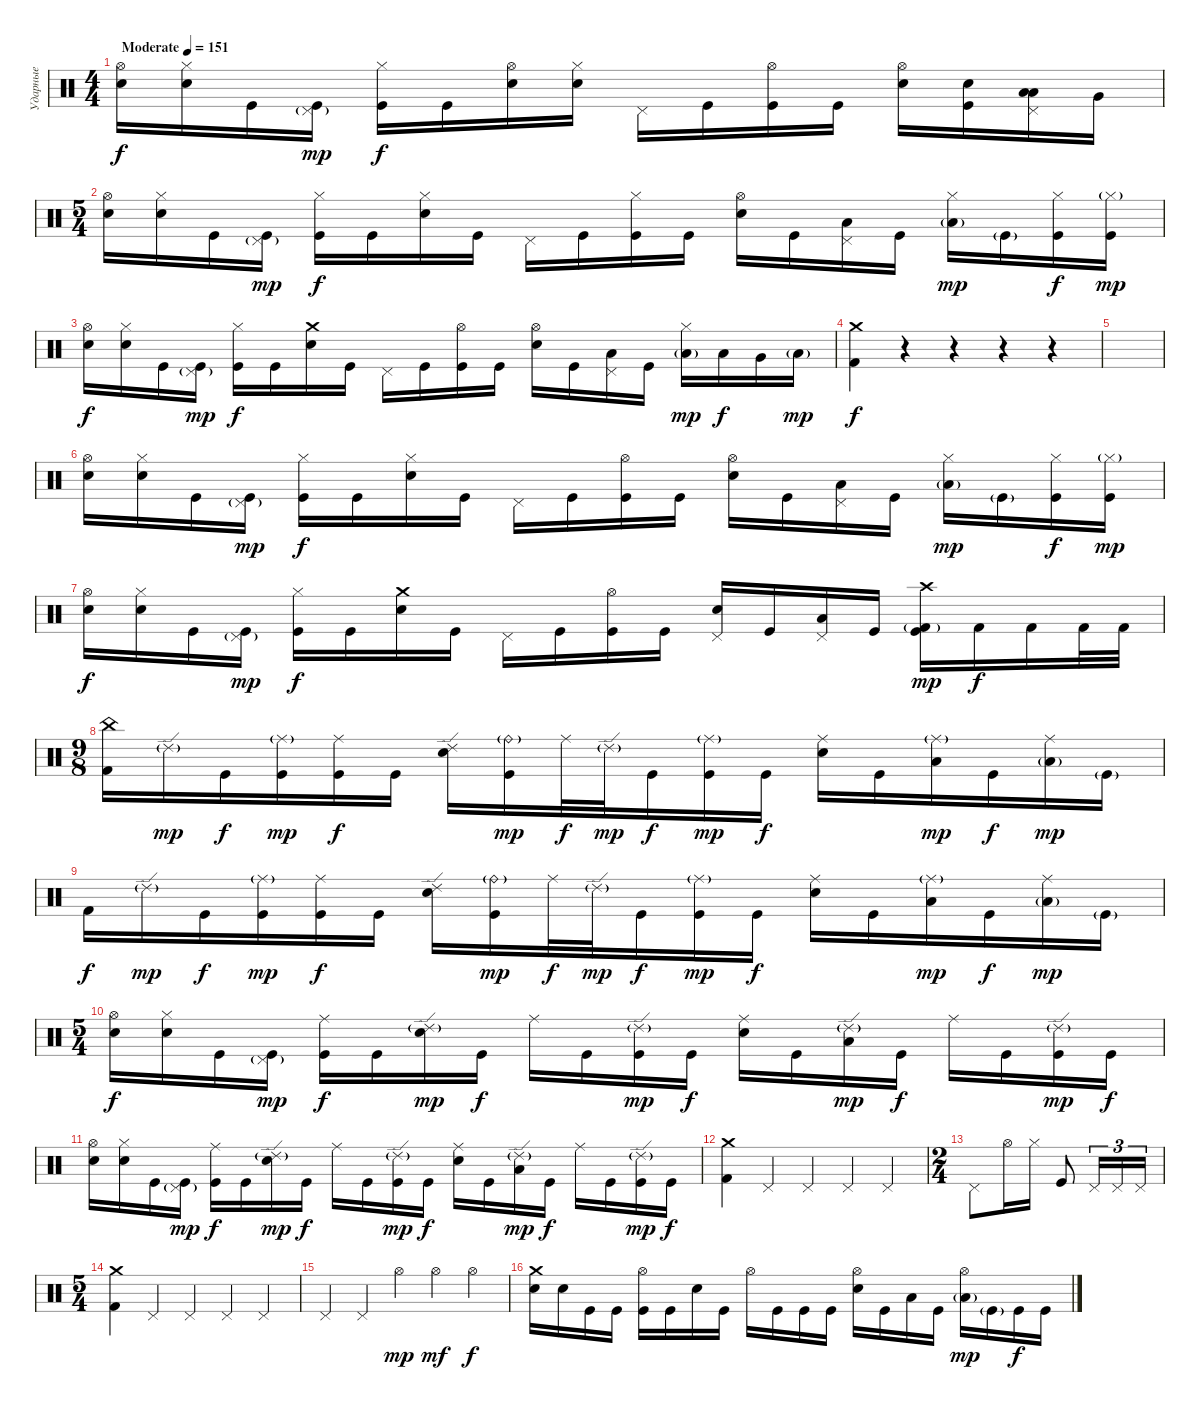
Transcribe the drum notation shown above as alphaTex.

\track ("Ударные" "Ударные") {instrument percussion}
\staff {score}
\articulation defaults
\ts (4 4)
\tempo (151 "Moderate")
\clef neutral
\ks c
("Hi-Hat (open)" "Snare (hit) 2").16{dy f} ("Hi-Hat (closed)" "Snare (hit) 2").16 "Kick (hit)".16 ("Pedal Hi-Hat (hit)"{g} "Kick (hit)").16{dy mp} ("Hi-Hat (closed)" "Kick (hit)").16{dy f} "Kick (hit)".16 ("Hi-Hat (open)" "Snare (hit) 2").16 ("Hi-Hat (closed)" "Snare (hit) 2").16 "Pedal Hi-Hat (hit)".16 "Kick (hit)".16 ("Hi-Hat (open)" "Kick (hit)").16 "Kick (hit)".16 ("Hi-Hat (open)" "Snare (hit) 2").16 ("Snare (hit) 2" "Kick (hit)").16 ("Pedal Hi-Hat (hit)" "Low Floor Tom (hit)" "Low Tom (hit)").16 "Very Low Tom (hit)".16 |
\ts (5 4)
("Hi-Hat (open)" "Snare (hit) 2").16 ("Hi-Hat (closed)" "Snare (hit) 2").16 "Kick (hit)".16 ("Pedal Hi-Hat (hit)"{g} "Kick (hit)").16{dy mp} ("Hi-Hat (closed)" "Kick (hit)").16{dy f} "Kick (hit)".16 ("Hi-Hat (closed)" "Snare (hit) 2").16 "Kick (hit)".16 "Pedal Hi-Hat (hit)".16 "Kick (hit)".16 ("Hi-Hat (closed)" "Kick (hit)").16 "Kick (hit)".16 ("Hi-Hat (open)" "Snare (hit) 2").16 "Kick (hit)".16 ("Pedal Hi-Hat (hit)" "Low Floor Tom (hit)").16 "Kick (hit)".16 ("Hi-Hat (closed)" "Low Floor Tom (hit)"{g}).16{dy mp} "Kick (hit)"{g}.16 ("Hi-Hat (closed)" "Kick (hit)").16{dy f} ("Hi-Hat (closed)"{g} "Kick (hit)").16{dy mp} |
("Hi-Hat (open)" "Snare (hit) 2").16{dy f} ("Hi-Hat (closed)" "Snare (hit) 2").16 "Kick (hit)".16 ("Pedal Hi-Hat (hit)"{g} "Kick (hit)").16{dy mp} ("Hi-Hat (closed)" "Kick (hit)").16{dy f} "Kick (hit)".16 ("Crash medium (hit)" "Snare (hit) 2").16 "Kick (hit)".16 "Pedal Hi-Hat (hit)".16 "Kick (hit)".16 ("Hi-Hat (open)" "Kick (hit)").16 "Kick (hit)".16 ("Hi-Hat (open)" "Snare (hit) 2").16 "Kick (hit)".16 ("Pedal Hi-Hat (hit)" "Low Floor Tom (hit)").16 "Kick (hit)".16 ("Hi-Hat (closed)" "Low Floor Tom (hit)"{g}).16{dy mp} "Low Tom (hit)".16{dy f} "Very Low Tom (hit)".16 "Low Floor Tom (hit)"{g}.16{dy mp} |
("Crash medium (hit)" "Kick (hit) 2").4{dy f} r.4 r.4 r.4 r.4 |
|
("Hi-Hat (open)" "Snare (hit) 2").16 ("Hi-Hat (closed)" "Snare (hit) 2").16 "Kick (hit)".16 ("Pedal Hi-Hat (hit)"{g} "Kick (hit)").16{dy mp} ("Hi-Hat (closed)" "Kick (hit)").16{dy f} "Kick (hit)".16 ("Hi-Hat (closed)" "Snare (hit) 2").16 "Kick (hit)".16 "Pedal Hi-Hat (hit)".16 "Kick (hit)".16 ("Hi-Hat (open)" "Kick (hit)").16 "Kick (hit)".16 ("Hi-Hat (open)" "Snare (hit) 2").16 "Kick (hit)".16 ("Pedal Hi-Hat (hit)" "Low Floor Tom (hit)").16 "Kick (hit)".16 ("Hi-Hat (closed)" "Low Floor Tom (hit)"{g}).16{dy mp} "Kick (hit)"{g}.16 ("Hi-Hat (closed)" "Kick (hit)").16{dy f} ("Hi-Hat (closed)"{g} "Kick (hit)").16{dy mp} |
("Hi-Hat (open)" "Snare (hit) 2").16{dy f} ("Hi-Hat (closed)" "Snare (hit) 2").16 "Kick (hit)".16 ("Pedal Hi-Hat (hit)"{g} "Kick (hit)").16{dy mp} ("Hi-Hat (closed)" "Kick (hit)").16{dy f} "Kick (hit)".16 ("Crash medium (hit)" "Snare (hit) 2").16 "Kick (hit)".16 "Pedal Hi-Hat (hit)".16 "Kick (hit)".16 ("Hi-Hat (open)" "Kick (hit)").16 "Kick (hit)".16 ("Pedal Hi-Hat (hit)" "Snare (hit) 2").16 "Kick (hit)".16 ("Pedal Hi-Hat (hit)" "Low Floor Tom (hit)").16 "Kick (hit)".16 ("Crash high (hit)" "Kick (hit) 2"{g} "Kick (hit)").16{dy mp} "Kick (hit) 2".16{dy f} "Kick (hit) 2".16 "Kick (hit) 2".32 "Kick (hit) 2".32 |
\ts (9 8)
("China (hit)" "Kick (hit) 2").16 "Ride (edge) 2"{g}.16{dy mp} "Kick (hit)".16{dy f} ("Ride (middle)"{g} "Kick (hit)").16{dy mp} ("Ride (middle)" "Kick (hit)").16{dy f} "Kick (hit)".16 ("Ride (edge) 2" "Snare (hit) 2").16 ("Ride (bell)"{g} "Kick (hit)").16{dy mp} "Ride (middle)".32{dy f} "Ride (edge) 2"{g}.32{dy mp} "Kick (hit)".16{dy f} ("Ride (middle)"{g} "Kick (hit)").16{dy mp} "Kick (hit)".16{dy f} ("Ride (middle)" "Snare (hit) 2").16 "Kick (hit)".16 ("Ride (middle)"{g} "Low Floor Tom (hit)").16{dy mp} "Kick (hit)".16{dy f} ("Ride (middle)" "Low Floor Tom (hit)"{g}).16{dy mp} "Kick (hit)"{g}.16 |
"Kick (hit) 2".16{dy f} "Ride (edge) 2"{g}.16{dy mp} "Kick (hit)".16{dy f} ("Ride (middle)"{g} "Kick (hit)").16{dy mp} ("Ride (middle)" "Kick (hit)").16{dy f} "Kick (hit)".16 ("Ride (edge) 2" "Snare (hit) 2").16 ("Ride (bell)"{g} "Kick (hit)").16{dy mp} "Ride (middle)".32{dy f} "Ride (edge) 2"{g}.32{dy mp} "Kick (hit)".16{dy f} ("Ride (middle)"{g} "Kick (hit)").16{dy mp} "Kick (hit)".16{dy f} ("Ride (middle)" "Snare (hit) 2").16 "Kick (hit)".16 ("Ride (middle)"{g} "Low Floor Tom (hit)").16{dy mp} "Kick (hit)".16{dy f} ("Ride (middle)" "Low Floor Tom (hit)"{g}).16{dy mp} "Kick (hit)"{g}.16 |
\ts (5 4)
("Hi-Hat (open)" "Snare (hit) 2").16{dy f} ("Hi-Hat (closed)" "Snare (hit) 2").16 "Kick (hit)".16 ("Pedal Hi-Hat (hit)"{g} "Kick (hit)").16{dy mp} ("Ride (middle)" "Kick (hit)").16{dy f} "Kick (hit)".16 ("Ride (edge) 2"{g} "Snare (hit) 2").16{dy mp} "Kick (hit)".16{dy f} "Ride (middle)".16 "Kick (hit)".16 ("Ride (edge) 2"{g} "Kick (hit)").16{dy mp} "Kick (hit)".16{dy f} ("Ride (middle)" "Snare (hit) 2").16 "Kick (hit)".16 ("Ride (edge) 2"{g} "Low Floor Tom (hit)").16{dy mp} "Kick (hit)".16{dy f} "Ride (middle)".16 "Kick (hit)".16 ("Ride (edge) 2"{g} "Kick (hit)").16{dy mp} "Kick (hit)".16{dy f} |
("Hi-Hat (open)" "Snare (hit) 2").16 ("Hi-Hat (closed)" "Snare (hit) 2").16 "Kick (hit)".16 ("Pedal Hi-Hat (hit)"{g} "Kick (hit)").16{dy mp} ("Ride (middle)" "Kick (hit)").16{dy f} "Kick (hit)".16 ("Ride (edge) 2"{g} "Snare (hit) 2").16{dy mp} "Kick (hit)".16{dy f} "Ride (middle)".16 "Kick (hit)".16 ("Ride (edge) 2"{g} "Kick (hit)").16{dy mp} "Kick (hit)".16{dy f} ("Ride (middle)" "Snare (hit) 2").16 "Kick (hit)".16 ("Ride (edge) 2"{g} "Low Floor Tom (hit)").16{dy mp} "Kick (hit)".16{dy f} "Ride (middle)".16 "Kick (hit)".16 ("Ride (edge) 2"{g} "Kick (hit)").16{dy mp} "Kick (hit)".16{dy f} |
("Crash medium (hit)" "Kick (hit) 2").4 "Pedal Hi-Hat (hit)".4 "Pedal Hi-Hat (hit)".4 "Pedal Hi-Hat (hit)".4 "Pedal Hi-Hat (hit)".4 |
\ts (2 4)
"Pedal Hi-Hat (hit)".8 "Hi-Hat (open)".16 "Hi-Hat (closed)".16 "Kick (hit)".8 "Pedal Hi-Hat (hit)".16{tu (3 2)} "Pedal Hi-Hat (hit)".16{tu (3 2)} "Pedal Hi-Hat (hit)".16{tu (3 2)} |
\ts (5 4)
("Crash medium (hit)" "Kick (hit) 2").4 "Pedal Hi-Hat (hit)".4 "Pedal Hi-Hat (hit)".4 "Pedal Hi-Hat (hit)".4 "Pedal Hi-Hat (hit)".4 |
"Pedal Hi-Hat (hit)".4 "Pedal Hi-Hat (hit)".4 "Hi-Hat (open)".4{dy mp} "Hi-Hat (open)".4{dy mf} "Hi-Hat (open)".4{dy f} |
("Crash medium (hit)" "Snare (hit) 2").16 "Snare (hit) 2".16 "Kick (hit)".16 "Kick (hit)".16 ("Hi-Hat (open)" "Kick (hit)").16 "Kick (hit)".16 "Snare (hit) 2".16 "Kick (hit)".16 "Hi-Hat (open)".16 "Kick (hit)".16 "Kick (hit)".16 "Kick (hit)".16 ("Hi-Hat (open)" "Snare (hit) 2").16 "Kick (hit)".16 "Low Floor Tom (hit)".16 "Kick (hit)".16 ("Hi-Hat (open)" "Low Floor Tom (hit)"{g}).16{dy mp} "Kick (hit)"{g}.16 "Kick (hit)".16{dy f} "Kick (hit)".16
